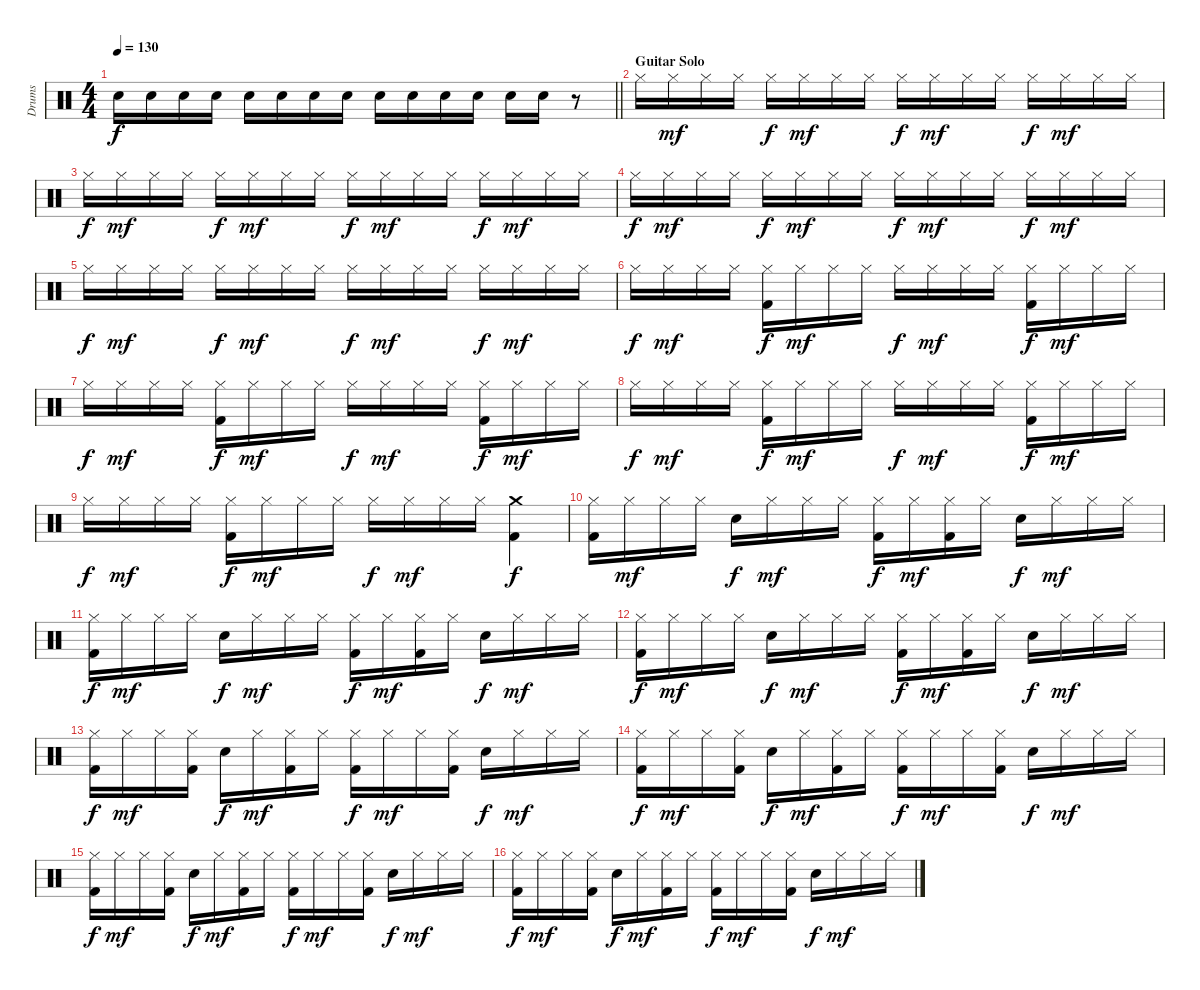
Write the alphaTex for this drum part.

\track ("Drums" "Drums") {instrument percussion}
\staff {score}
\articulation defaults
\ts (4 4)
\tempo 130
\clef neutral
\barLineRight lightlight
\ks c "Snare (hit) 2".16{dy f volume 16} "Snare (hit) 2".16 "Snare (hit) 2".16 "Snare (hit) 2".16 "Snare (hit) 2".16 "Snare (hit) 2".16 "Snare (hit) 2".16 "Snare (hit) 2".16 "Snare (hit) 2".16 "Snare (hit) 2".16 "Snare (hit) 2".16 "Snare (hit) 2".16 "Snare (hit) 2".16 "Snare (hit) 2".16
r.8 |
\section ("" "Guitar Solo")
"Hi-Hat (closed)".16{volume 13} "Hi-Hat (closed)".16{dy mf} "Hi-Hat (closed)".16 "Hi-Hat (closed)".16 "Hi-Hat (closed)".16{dy f} "Hi-Hat (closed)".16{dy mf} "Hi-Hat (closed)".16 "Hi-Hat (closed)".16 "Hi-Hat (closed)".16{dy f} "Hi-Hat (closed)".16{dy mf} "Hi-Hat (closed)".16 "Hi-Hat (closed)".16 "Hi-Hat (closed)".16{dy f} "Hi-Hat (closed)".16{dy mf} "Hi-Hat (closed)".16 "Hi-Hat (closed)".16 |
"Hi-Hat (closed)".16{dy f} "Hi-Hat (closed)".16{dy mf} "Hi-Hat (closed)".16 "Hi-Hat (closed)".16 "Hi-Hat (closed)".16{dy f} "Hi-Hat (closed)".16{dy mf} "Hi-Hat (closed)".16 "Hi-Hat (closed)".16 "Hi-Hat (closed)".16{dy f} "Hi-Hat (closed)".16{dy mf} "Hi-Hat (closed)".16 "Hi-Hat (closed)".16 "Hi-Hat (closed)".16{dy f} "Hi-Hat (closed)".16{dy mf} "Hi-Hat (closed)".16 "Hi-Hat (closed)".16 |
"Hi-Hat (closed)".16{dy f} "Hi-Hat (closed)".16{dy mf} "Hi-Hat (closed)".16 "Hi-Hat (closed)".16 "Hi-Hat (closed)".16{dy f} "Hi-Hat (closed)".16{dy mf} "Hi-Hat (closed)".16 "Hi-Hat (closed)".16 "Hi-Hat (closed)".16{dy f} "Hi-Hat (closed)".16{dy mf} "Hi-Hat (closed)".16 "Hi-Hat (closed)".16 "Hi-Hat (closed)".16{dy f} "Hi-Hat (closed)".16{dy mf} "Hi-Hat (closed)".16 "Hi-Hat (closed)".16 |
"Hi-Hat (closed)".16{dy f} "Hi-Hat (closed)".16{dy mf} "Hi-Hat (closed)".16 "Hi-Hat (closed)".16 "Hi-Hat (closed)".16{dy f} "Hi-Hat (closed)".16{dy mf} "Hi-Hat (closed)".16 "Hi-Hat (closed)".16 "Hi-Hat (closed)".16{dy f} "Hi-Hat (closed)".16{dy mf} "Hi-Hat (closed)".16 "Hi-Hat (closed)".16 "Hi-Hat (closed)".16{dy f} "Hi-Hat (closed)".16{dy mf} "Hi-Hat (closed)".16 "Hi-Hat (closed)".16 |
"Hi-Hat (closed)".16{dy f} "Hi-Hat (closed)".16{dy mf} "Hi-Hat (closed)".16 "Hi-Hat (closed)".16 ("Hi-Hat (closed)" "Kick (hit) 2").16{dy f} "Hi-Hat (closed)".16{dy mf} "Hi-Hat (closed)".16 "Hi-Hat (closed)".16 "Hi-Hat (closed)".16{dy f} "Hi-Hat (closed)".16{dy mf} "Hi-Hat (closed)".16 "Hi-Hat (closed)".16 ("Hi-Hat (closed)" "Kick (hit) 2").16{dy f} "Hi-Hat (closed)".16{dy mf} "Hi-Hat (closed)".16 "Hi-Hat (closed)".16 |
"Hi-Hat (closed)".16{dy f} "Hi-Hat (closed)".16{dy mf} "Hi-Hat (closed)".16 "Hi-Hat (closed)".16 ("Hi-Hat (closed)" "Kick (hit) 2").16{dy f} "Hi-Hat (closed)".16{dy mf} "Hi-Hat (closed)".16 "Hi-Hat (closed)".16 "Hi-Hat (closed)".16{dy f} "Hi-Hat (closed)".16{dy mf} "Hi-Hat (closed)".16 "Hi-Hat (closed)".16 ("Hi-Hat (closed)" "Kick (hit) 2").16{dy f} "Hi-Hat (closed)".16{dy mf} "Hi-Hat (closed)".16 "Hi-Hat (closed)".16 |
"Hi-Hat (closed)".16{dy f} "Hi-Hat (closed)".16{dy mf} "Hi-Hat (closed)".16 "Hi-Hat (closed)".16 ("Hi-Hat (closed)" "Kick (hit) 2").16{dy f} "Hi-Hat (closed)".16{dy mf} "Hi-Hat (closed)".16 "Hi-Hat (closed)".16 "Hi-Hat (closed)".16{dy f} "Hi-Hat (closed)".16{dy mf} "Hi-Hat (closed)".16 "Hi-Hat (closed)".16 ("Hi-Hat (closed)" "Kick (hit) 2").16{dy f} "Hi-Hat (closed)".16{dy mf} "Hi-Hat (closed)".16 "Hi-Hat (closed)".16 |
"Hi-Hat (closed)".16{dy f} "Hi-Hat (closed)".16{dy mf} "Hi-Hat (closed)".16 "Hi-Hat (closed)".16 ("Hi-Hat (closed)" "Kick (hit) 2").16{dy f} "Hi-Hat (closed)".16{dy mf} "Hi-Hat (closed)".16 "Hi-Hat (closed)".16 "Hi-Hat (closed)".16{dy f} "Hi-Hat (closed)".16{dy mf} "Hi-Hat (closed)".16 "Hi-Hat (closed)".16 ("Crash medium (hit)" "Kick (hit) 2").4{dy f} |
("Hi-Hat (closed)" "Kick (hit) 2").16 "Hi-Hat (closed)".16{dy mf} "Hi-Hat (closed)".16 "Hi-Hat (closed)".16 "Snare (hit) 2".16{dy f} "Hi-Hat (closed)".16{dy mf} "Hi-Hat (closed)".16 "Hi-Hat (closed)".16 ("Hi-Hat (closed)" "Kick (hit) 2").16{dy f} "Hi-Hat (closed)".16{dy mf} ("Hi-Hat (closed)" "Kick (hit) 2").16 "Hi-Hat (closed)".16 "Snare (hit) 2".16{dy f} "Hi-Hat (closed)".16{dy mf} "Hi-Hat (closed)".16 "Hi-Hat (closed)".16 |
("Hi-Hat (closed)" "Kick (hit) 2").16{dy f} "Hi-Hat (closed)".16{dy mf} "Hi-Hat (closed)".16 "Hi-Hat (closed)".16 "Snare (hit) 2".16{dy f} "Hi-Hat (closed)".16{dy mf} "Hi-Hat (closed)".16 "Hi-Hat (closed)".16 ("Hi-Hat (closed)" "Kick (hit) 2").16{dy f} "Hi-Hat (closed)".16{dy mf} ("Hi-Hat (closed)" "Kick (hit) 2").16 "Hi-Hat (closed)".16 "Snare (hit) 2".16{dy f} "Hi-Hat (closed)".16{dy mf} "Hi-Hat (closed)".16 "Hi-Hat (closed)".16 |
("Hi-Hat (closed)" "Kick (hit) 2").16{dy f} "Hi-Hat (closed)".16{dy mf} "Hi-Hat (closed)".16 "Hi-Hat (closed)".16 "Snare (hit) 2".16{dy f} "Hi-Hat (closed)".16{dy mf} "Hi-Hat (closed)".16 "Hi-Hat (closed)".16 ("Hi-Hat (closed)" "Kick (hit) 2").16{dy f} "Hi-Hat (closed)".16{dy mf} ("Hi-Hat (closed)" "Kick (hit) 2").16 "Hi-Hat (closed)".16 "Snare (hit) 2".16{dy f} "Hi-Hat (closed)".16{dy mf} "Hi-Hat (closed)".16 "Hi-Hat (closed)".16 |
("Hi-Hat (closed)" "Kick (hit) 2").16{dy f} "Hi-Hat (closed)".16{dy mf} "Hi-Hat (closed)".16 ("Hi-Hat (closed)" "Kick (hit) 2").16 "Snare (hit) 2".16{dy f} "Hi-Hat (closed)".16{dy mf} ("Hi-Hat (closed)" "Kick (hit) 2").16 "Hi-Hat (closed)".16 ("Hi-Hat (closed)" "Kick (hit) 2").16{dy f} "Hi-Hat (closed)".16{dy mf} "Hi-Hat (closed)".16 ("Hi-Hat (closed)" "Kick (hit) 2").16 "Snare (hit) 2".16{dy f} "Hi-Hat (closed)".16{dy mf} "Hi-Hat (closed)".16 "Hi-Hat (closed)".16 |
("Hi-Hat (closed)" "Kick (hit) 2").16{dy f} "Hi-Hat (closed)".16{dy mf} "Hi-Hat (closed)".16 ("Hi-Hat (closed)" "Kick (hit) 2").16 "Snare (hit) 2".16{dy f} "Hi-Hat (closed)".16{dy mf} ("Hi-Hat (closed)" "Kick (hit) 2").16 "Hi-Hat (closed)".16 ("Hi-Hat (closed)" "Kick (hit) 2").16{dy f} "Hi-Hat (closed)".16{dy mf} "Hi-Hat (closed)".16 ("Hi-Hat (closed)" "Kick (hit) 2").16 "Snare (hit) 2".16{dy f} "Hi-Hat (closed)".16{dy mf} "Hi-Hat (closed)".16 "Hi-Hat (closed)".16 |
("Hi-Hat (closed)" "Kick (hit) 2").16{dy f} "Hi-Hat (closed)".16{dy mf} "Hi-Hat (closed)".16 ("Hi-Hat (closed)" "Kick (hit) 2").16 "Snare (hit) 2".16{dy f} "Hi-Hat (closed)".16{dy mf} ("Hi-Hat (closed)" "Kick (hit) 2").16 "Hi-Hat (closed)".16 ("Hi-Hat (closed)" "Kick (hit) 2").16{dy f} "Hi-Hat (closed)".16{dy mf} "Hi-Hat (closed)".16 ("Hi-Hat (closed)" "Kick (hit) 2").16 "Snare (hit) 2".16{dy f} "Hi-Hat (closed)".16{dy mf} "Hi-Hat (closed)".16 "Hi-Hat (closed)".16 |
("Hi-Hat (closed)" "Kick (hit) 2").16{dy f} "Hi-Hat (closed)".16{dy mf} "Hi-Hat (closed)".16 ("Hi-Hat (closed)" "Kick (hit) 2").16 "Snare (hit) 2".16{dy f} "Hi-Hat (closed)".16{dy mf} ("Hi-Hat (closed)" "Kick (hit) 2").16 "Hi-Hat (closed)".16 ("Hi-Hat (closed)" "Kick (hit) 2").16{dy f} "Hi-Hat (closed)".16{dy mf} "Hi-Hat (closed)".16 ("Hi-Hat (closed)" "Kick (hit) 2").16 "Snare (hit) 2".16{dy f} "Hi-Hat (closed)".16{dy mf} "Hi-Hat (closed)".16 "Hi-Hat (closed)".16
